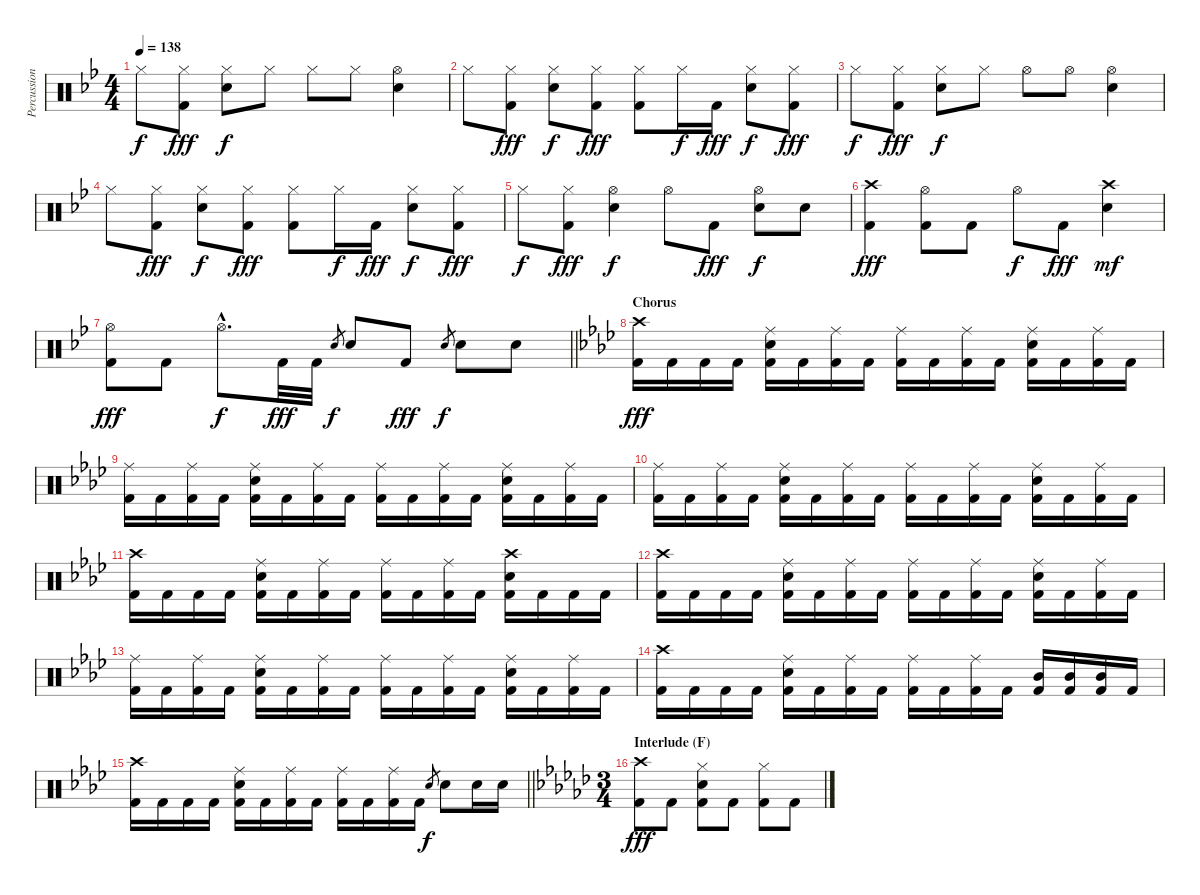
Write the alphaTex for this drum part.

\track ("Percussion" "Percussion") {instrument percussion}
\staff {score}
\articulation defaults
\ts (4 4)
\tempo 138
\clef neutral
\ks gminor "Hi-Hat (closed)".8{dy f}
("Hi-Hat (closed)" "Kick (hit) 2").8{dy fff} ("Hi-Hat (closed)" "Electric Snare (hit)").8{dy f} "Hi-Hat (closed)".8 "Hi-Hat (closed)".8 "Hi-Hat (closed)".8 ("Hi-Hat (open)" "Electric Snare (hit)").4 |
"Hi-Hat (closed)".8 ("Hi-Hat (closed)" "Kick (hit) 2").8{dy fff} ("Hi-Hat (closed)" "Electric Snare (hit)").8{dy f} ("Hi-Hat (closed)" "Kick (hit) 2").8{dy fff} ("Hi-Hat (closed)" "Kick (hit) 2").8 "Hi-Hat (closed)".16{dy f} "Kick (hit) 2".16{dy fff} ("Hi-Hat (closed)" "Electric Snare (hit)").8{dy f} ("Hi-Hat (closed)" "Kick (hit) 2").8{dy fff} |
"Hi-Hat (closed)".8{dy f} ("Hi-Hat (closed)" "Kick (hit) 2").8{dy fff} ("Hi-Hat (closed)" "Electric Snare (hit)").8{dy f} "Hi-Hat (closed)".8 "Hi-Hat (open)".8 "Hi-Hat (open)".8 ("Hi-Hat (open)" "Electric Snare (hit)").4 |
"Hi-Hat (closed)".8 ("Hi-Hat (closed)" "Kick (hit) 2").8{dy fff} ("Hi-Hat (closed)" "Electric Snare (hit)").8{dy f} ("Hi-Hat (closed)" "Kick (hit) 2").8{dy fff} ("Hi-Hat (closed)" "Kick (hit) 2").8 "Hi-Hat (closed)".16{dy f} "Kick (hit) 2".16{dy fff} ("Hi-Hat (closed)" "Electric Snare (hit)").8{dy f} ("Hi-Hat (closed)" "Kick (hit) 2").8{dy fff} |
"Hi-Hat (closed)".8{dy f} ("Hi-Hat (closed)" "Kick (hit) 2").8{dy fff} ("Hi-Hat (open)" "Electric Snare (hit)").4{dy f} "Hi-Hat (open)".8 "Kick (hit) 2".8{dy fff} ("Hi-Hat (open)" "Electric Snare (hit)").8{dy f} "Electric Snare (hit)".8 |
("Crash high (hit)" "Kick (hit) 2").4{dy fff} ("Hi-Hat (open)" "Kick (hit) 2").8 "Kick (hit) 2".8 "Hi-Hat (open)".8{dy f} "Kick (hit) 2".8{dy fff} ("Crash high (hit)" "Electric Snare (hit)").4{dy mf} |
\barLineRight lightlight
("Hi-Hat (open)" "Kick (hit) 2").8{dy fff} "Kick (hit) 2".8 "Hi-Hat (open)"{hac}.8{d dy f} "Kick (hit) 2".32{dy fff} "Kick (hit) 2".32 "Electric Snare (hit)".8{gr dy f} "Electric Snare (hit)".8 "Kick (hit) 2".8{dy fff} "Electric Snare (hit)".8{gr dy f} "Electric Snare (hit)".8 "Electric Snare (hit)".8 |
\section ("" "Chorus")
\ks fminor
("Crash high (hit)" "Kick (hit) 2").16{dy fff} "Kick (hit) 2".16 "Kick (hit) 2".16 "Kick (hit) 2".16 ("Ride (middle)" "Electric Snare (hit)" "Kick (hit) 2").16 "Kick (hit) 2".16 ("Ride (middle)" "Kick (hit) 2").16 "Kick (hit) 2".16 ("Ride (middle)" "Kick (hit) 2").16 "Kick (hit) 2".16 ("Ride (middle)" "Kick (hit) 2").16 "Kick (hit) 2".16 ("Ride (middle)" "Electric Snare (hit)" "Kick (hit) 2").16 "Kick (hit) 2".16 ("Ride (middle)" "Kick (hit) 2").16 "Kick (hit) 2".16 |
("Ride (middle)" "Kick (hit) 2").16 "Kick (hit) 2".16 ("Ride (middle)" "Kick (hit) 2").16 "Kick (hit) 2".16 ("Ride (middle)" "Electric Snare (hit)" "Kick (hit) 2").16 "Kick (hit) 2".16 ("Ride (middle)" "Kick (hit) 2").16 "Kick (hit) 2".16 ("Ride (middle)" "Kick (hit) 2").16 "Kick (hit) 2".16 ("Ride (middle)" "Kick (hit) 2").16 "Kick (hit) 2".16 ("Ride (middle)" "Electric Snare (hit)" "Kick (hit) 2").16 "Kick (hit) 2".16 ("Ride (middle)" "Kick (hit) 2").16 "Kick (hit) 2".16 |
("Ride (middle)" "Kick (hit) 2").16 "Kick (hit) 2".16 ("Ride (middle)" "Kick (hit) 2").16 "Kick (hit) 2".16 ("Ride (middle)" "Electric Snare (hit)" "Kick (hit) 2").16 "Kick (hit) 2".16 ("Ride (middle)" "Kick (hit) 2").16 "Kick (hit) 2".16 ("Ride (middle)" "Kick (hit) 2").16 "Kick (hit) 2".16 ("Ride (middle)" "Kick (hit) 2").16 "Kick (hit) 2".16 ("Ride (middle)" "Electric Snare (hit)" "Kick (hit) 2").16 "Kick (hit) 2".16 ("Ride (middle)" "Kick (hit) 2").16 "Kick (hit) 2".16 |
("Crash high (hit)" "Kick (hit) 2").16 "Kick (hit) 2".16 "Kick (hit) 2".16 "Kick (hit) 2".16 ("Ride (middle)" "Electric Snare (hit)" "Kick (hit) 2").16 "Kick (hit) 2".16 ("Ride (middle)" "Kick (hit) 2").16 "Kick (hit) 2".16 ("Ride (middle)" "Kick (hit) 2").16 "Kick (hit) 2".16 ("Ride (middle)" "Kick (hit) 2").16 "Kick (hit) 2".16 ("Crash high (hit)" "Electric Snare (hit)" "Kick (hit) 2").16 "Kick (hit) 2".16 "Kick (hit) 2".16 "Kick (hit) 2".16 |
("Crash high (hit)" "Kick (hit) 2").16 "Kick (hit) 2".16 "Kick (hit) 2".16 "Kick (hit) 2".16 ("Ride (middle)" "Electric Snare (hit)" "Kick (hit) 2").16 "Kick (hit) 2".16 ("Ride (middle)" "Kick (hit) 2").16 "Kick (hit) 2".16 ("Ride (middle)" "Kick (hit) 2").16 "Kick (hit) 2".16 ("Ride (middle)" "Kick (hit) 2").16 "Kick (hit) 2".16 ("Ride (middle)" "Electric Snare (hit)" "Kick (hit) 2").16 "Kick (hit) 2".16 ("Ride (middle)" "Kick (hit) 2").16 "Kick (hit) 2".16 |
("Ride (middle)" "Kick (hit) 2").16 "Kick (hit) 2".16 ("Ride (middle)" "Kick (hit) 2").16 "Kick (hit) 2".16 ("Ride (middle)" "Electric Snare (hit)" "Kick (hit) 2").16 "Kick (hit) 2".16 ("Ride (middle)" "Kick (hit) 2").16 "Kick (hit) 2".16 ("Ride (middle)" "Kick (hit) 2").16 "Kick (hit) 2".16 ("Ride (middle)" "Kick (hit) 2").16 "Kick (hit) 2".16 ("Ride (middle)" "Electric Snare (hit)" "Kick (hit) 2").16 "Kick (hit) 2".16 ("Ride (middle)" "Kick (hit) 2").16 "Kick (hit) 2".16 |
("Crash high (hit)" "Kick (hit) 2").16 "Kick (hit) 2".16 "Kick (hit) 2".16 "Kick (hit) 2".16 ("Ride (middle)" "Electric Snare (hit)" "Kick (hit) 2").16 "Kick (hit) 2".16 ("Ride (middle)" "Kick (hit) 2").16 "Kick (hit) 2".16 ("Ride (middle)" "Kick (hit) 2").16 "Kick (hit) 2".16 ("Ride (middle)" "Kick (hit) 2").16 "Kick (hit) 2".16 ("Mid Tom (hit)" "Kick (hit) 2").16 ("Mid Tom (hit)" "Kick (hit) 2").16 ("Mid Tom (hit)" "Kick (hit) 2").16 "Kick (hit) 2".16 |
\barLineRight lightlight
("Crash high (hit)" "Kick (hit) 2").16 "Kick (hit) 2".16 "Kick (hit) 2".16 "Kick (hit) 2".16 ("Ride (middle)" "Electric Snare (hit)" "Kick (hit) 2").16 "Kick (hit) 2".16 ("Ride (middle)" "Kick (hit) 2").16 "Kick (hit) 2".16 ("Ride (middle)" "Kick (hit) 2").16 "Kick (hit) 2".16 ("Ride (middle)" "Kick (hit) 2").16 "Kick (hit) 2".16 "Electric Snare (hit)".8{gr dy f} "Electric Snare (hit)".8 "Electric Snare (hit)".16 "Electric Snare (hit)".16 |
\ts (3 4)
\section ("" "Interlude (F)")
\ks ebminor
("Crash high (hit)" "Kick (hit) 2").8{dy fff} "Kick (hit) 2".8 ("Hi-Hat (closed)" "Electric Snare (hit)" "Kick (hit) 2").8 "Kick (hit) 2".8 ("Hi-Hat (closed)" "Kick (hit) 2").8 "Kick (hit) 2".8
